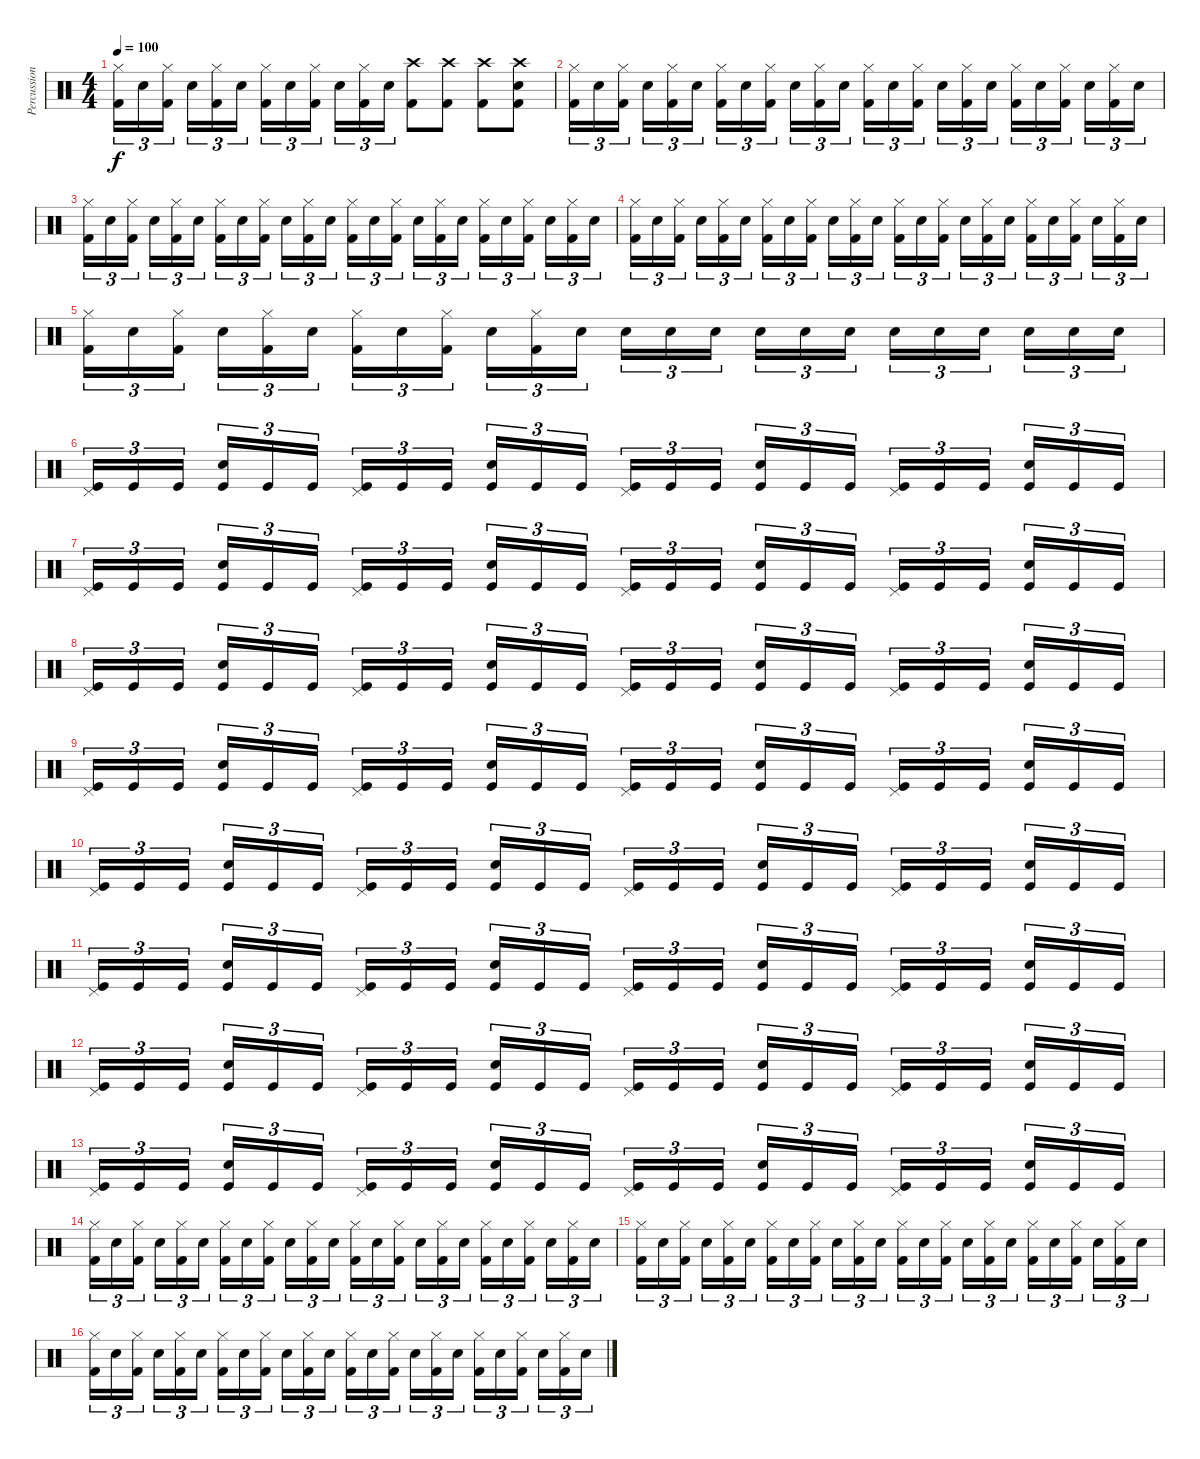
\track ("Percussion" "Percussion") {instrument percussion}
\staff {score}
\articulation defaults
\ts (4 4)
\tempo 100
\clef neutral
\ks c
("Hi-Hat (closed)" "Kick (hit) 2").16{tu (3 2) dy f} "Snare (hit) 2".16{tu (3 2)} ("Hi-Hat (closed)" "Kick (hit) 2").16{tu (3 2) beam splitsecondary} "Snare (hit) 2".16{tu (3 2)} ("Hi-Hat (closed)" "Kick (hit) 2").16{tu (3 2)} "Snare (hit) 2".16{tu (3 2)} ("Hi-Hat (closed)" "Kick (hit) 2").16{tu (3 2)} "Snare (hit) 2".16{tu (3 2)} ("Hi-Hat (closed)" "Kick (hit) 2").16{tu (3 2) beam splitsecondary} "Snare (hit) 2".16{tu (3 2)} ("Hi-Hat (closed)" "Kick (hit) 2").16{tu (3 2)} "Snare (hit) 2".16{tu (3 2)} ("Crash high (hit)" "Kick (hit) 2").8 ("Crash high (hit)" "Kick (hit) 2").8 ("Crash high (hit)" "Kick (hit) 2").8 ("Crash high (hit)" "Snare (hit) 2" "Kick (hit) 2").8 |
("Hi-Hat (closed)" "Kick (hit) 2").16{tu (3 2)} "Snare (hit) 2".16{tu (3 2)} ("Hi-Hat (closed)" "Kick (hit) 2").16{tu (3 2) beam splitsecondary} "Snare (hit) 2".16{tu (3 2)} ("Hi-Hat (closed)" "Kick (hit) 2").16{tu (3 2)} "Snare (hit) 2".16{tu (3 2)} ("Hi-Hat (closed)" "Kick (hit) 2").16{tu (3 2)} "Snare (hit) 2".16{tu (3 2)} ("Hi-Hat (closed)" "Kick (hit) 2").16{tu (3 2) beam splitsecondary} "Snare (hit) 2".16{tu (3 2)} ("Hi-Hat (closed)" "Kick (hit) 2").16{tu (3 2)} "Snare (hit) 2".16{tu (3 2)} ("Hi-Hat (closed)" "Kick (hit) 2").16{tu (3 2)} "Snare (hit) 2".16{tu (3 2)} ("Hi-Hat (closed)" "Kick (hit) 2").16{tu (3 2) beam splitsecondary} "Snare (hit) 2".16{tu (3 2)} ("Hi-Hat (closed)" "Kick (hit) 2").16{tu (3 2)} "Snare (hit) 2".16{tu (3 2)} ("Hi-Hat (closed)" "Kick (hit) 2").16{tu (3 2)} "Snare (hit) 2".16{tu (3 2)} ("Hi-Hat (closed)" "Kick (hit) 2").16{tu (3 2) beam splitsecondary} "Snare (hit) 2".16{tu (3 2)} ("Hi-Hat (closed)" "Kick (hit) 2").16{tu (3 2)} "Snare (hit) 2".16{tu (3 2)} |
("Hi-Hat (closed)" "Kick (hit) 2").16{tu (3 2)} "Snare (hit) 2".16{tu (3 2)} ("Hi-Hat (closed)" "Kick (hit) 2").16{tu (3 2) beam splitsecondary} "Snare (hit) 2".16{tu (3 2)} ("Hi-Hat (closed)" "Kick (hit) 2").16{tu (3 2)} "Snare (hit) 2".16{tu (3 2)} ("Hi-Hat (closed)" "Kick (hit) 2").16{tu (3 2)} "Snare (hit) 2".16{tu (3 2)} ("Hi-Hat (closed)" "Kick (hit) 2").16{tu (3 2) beam splitsecondary} "Snare (hit) 2".16{tu (3 2)} ("Hi-Hat (closed)" "Kick (hit) 2").16{tu (3 2)} "Snare (hit) 2".16{tu (3 2)} ("Hi-Hat (closed)" "Kick (hit) 2").16{tu (3 2)} "Snare (hit) 2".16{tu (3 2)} ("Hi-Hat (closed)" "Kick (hit) 2").16{tu (3 2) beam splitsecondary} "Snare (hit) 2".16{tu (3 2)} ("Hi-Hat (closed)" "Kick (hit) 2").16{tu (3 2)} "Snare (hit) 2".16{tu (3 2)} ("Hi-Hat (closed)" "Kick (hit) 2").16{tu (3 2)} "Snare (hit) 2".16{tu (3 2)} ("Hi-Hat (closed)" "Kick (hit) 2").16{tu (3 2) beam splitsecondary} "Snare (hit) 2".16{tu (3 2)} ("Hi-Hat (closed)" "Kick (hit) 2").16{tu (3 2)} "Snare (hit) 2".16{tu (3 2)} |
("Hi-Hat (closed)" "Kick (hit) 2").16{tu (3 2)} "Snare (hit) 2".16{tu (3 2)} ("Hi-Hat (closed)" "Kick (hit) 2").16{tu (3 2) beam splitsecondary} "Snare (hit) 2".16{tu (3 2)} ("Hi-Hat (closed)" "Kick (hit) 2").16{tu (3 2)} "Snare (hit) 2".16{tu (3 2)} ("Hi-Hat (closed)" "Kick (hit) 2").16{tu (3 2)} "Snare (hit) 2".16{tu (3 2)} ("Hi-Hat (closed)" "Kick (hit) 2").16{tu (3 2) beam splitsecondary} "Snare (hit) 2".16{tu (3 2)} ("Hi-Hat (closed)" "Kick (hit) 2").16{tu (3 2)} "Snare (hit) 2".16{tu (3 2)} ("Hi-Hat (closed)" "Kick (hit) 2").16{tu (3 2)} "Snare (hit) 2".16{tu (3 2)} ("Hi-Hat (closed)" "Kick (hit) 2").16{tu (3 2) beam splitsecondary} "Snare (hit) 2".16{tu (3 2)} ("Hi-Hat (closed)" "Kick (hit) 2").16{tu (3 2)} "Snare (hit) 2".16{tu (3 2)} ("Hi-Hat (closed)" "Kick (hit) 2").16{tu (3 2)} "Snare (hit) 2".16{tu (3 2)} ("Hi-Hat (closed)" "Kick (hit) 2").16{tu (3 2) beam splitsecondary} "Snare (hit) 2".16{tu (3 2)} ("Hi-Hat (closed)" "Kick (hit) 2").16{tu (3 2)} "Snare (hit) 2".16{tu (3 2)} |
("Hi-Hat (closed)" "Kick (hit) 2").16{tu (3 2)} "Snare (hit) 2".16{tu (3 2)} ("Hi-Hat (closed)" "Kick (hit) 2").16{tu (3 2) beam splitsecondary} "Snare (hit) 2".16{tu (3 2)} ("Hi-Hat (closed)" "Kick (hit) 2").16{tu (3 2)} "Snare (hit) 2".16{tu (3 2)} ("Hi-Hat (closed)" "Kick (hit) 2").16{tu (3 2)} "Snare (hit) 2".16{tu (3 2)} ("Hi-Hat (closed)" "Kick (hit) 2").16{tu (3 2) beam splitsecondary} "Snare (hit) 2".16{tu (3 2)} ("Hi-Hat (closed)" "Kick (hit) 2").16{tu (3 2)} "Snare (hit) 2".16{tu (3 2)} "Snare (hit) 2".16{tu (3 2)} "Snare (hit) 2".16{tu (3 2)} "Snare (hit) 2".16{tu (3 2) beam splitsecondary} "Snare (hit) 2".16{tu (3 2)} "Snare (hit) 2".16{tu (3 2)} "Snare (hit) 2".16{tu (3 2)} "Snare (hit) 2".16{tu (3 2)} "Snare (hit) 2".16{tu (3 2)} "Snare (hit) 2".16{tu (3 2) beam splitsecondary} "Snare (hit) 2".16{tu (3 2)} "Snare (hit) 2".16{tu (3 2)} "Snare (hit) 2".16{tu (3 2)} |
("Pedal Hi-Hat (hit)" "Kick (hit)").16{tu (3 2)} "Kick (hit)".16{tu (3 2)} "Kick (hit)".16{tu (3 2) beam splitsecondary} ("Snare (hit) 2" "Kick (hit)").16{tu (3 2)} "Kick (hit)".16{tu (3 2)} "Kick (hit)".16{tu (3 2)} ("Pedal Hi-Hat (hit)" "Kick (hit)").16{tu (3 2)} "Kick (hit)".16{tu (3 2)} "Kick (hit)".16{tu (3 2) beam splitsecondary} ("Snare (hit) 2" "Kick (hit)").16{tu (3 2)} "Kick (hit)".16{tu (3 2)} "Kick (hit)".16{tu (3 2)} ("Pedal Hi-Hat (hit)" "Kick (hit)").16{tu (3 2)} "Kick (hit)".16{tu (3 2)} "Kick (hit)".16{tu (3 2) beam splitsecondary} ("Snare (hit) 2" "Kick (hit)").16{tu (3 2)} "Kick (hit)".16{tu (3 2)} "Kick (hit)".16{tu (3 2)} ("Pedal Hi-Hat (hit)" "Kick (hit)").16{tu (3 2)} "Kick (hit)".16{tu (3 2)} "Kick (hit)".16{tu (3 2) beam splitsecondary} ("Snare (hit) 2" "Kick (hit)").16{tu (3 2)} "Kick (hit)".16{tu (3 2)} "Kick (hit)".16{tu (3 2)} |
("Pedal Hi-Hat (hit)" "Kick (hit)").16{tu (3 2)} "Kick (hit)".16{tu (3 2)} "Kick (hit)".16{tu (3 2) beam splitsecondary} ("Snare (hit) 2" "Kick (hit)").16{tu (3 2)} "Kick (hit)".16{tu (3 2)} "Kick (hit)".16{tu (3 2)} ("Pedal Hi-Hat (hit)" "Kick (hit)").16{tu (3 2)} "Kick (hit)".16{tu (3 2)} "Kick (hit)".16{tu (3 2) beam splitsecondary} ("Snare (hit) 2" "Kick (hit)").16{tu (3 2)} "Kick (hit)".16{tu (3 2)} "Kick (hit)".16{tu (3 2)} ("Pedal Hi-Hat (hit)" "Kick (hit)").16{tu (3 2)} "Kick (hit)".16{tu (3 2)} "Kick (hit)".16{tu (3 2) beam splitsecondary} ("Snare (hit) 2" "Kick (hit)").16{tu (3 2)} "Kick (hit)".16{tu (3 2)} "Kick (hit)".16{tu (3 2)} ("Pedal Hi-Hat (hit)" "Kick (hit)").16{tu (3 2)} "Kick (hit)".16{tu (3 2)} "Kick (hit)".16{tu (3 2) beam splitsecondary} ("Snare (hit) 2" "Kick (hit)").16{tu (3 2)} "Kick (hit)".16{tu (3 2)} "Kick (hit)".16{tu (3 2)} |
("Pedal Hi-Hat (hit)" "Kick (hit)").16{tu (3 2)} "Kick (hit)".16{tu (3 2)} "Kick (hit)".16{tu (3 2) beam splitsecondary} ("Snare (hit) 2" "Kick (hit)").16{tu (3 2)} "Kick (hit)".16{tu (3 2)} "Kick (hit)".16{tu (3 2)} ("Pedal Hi-Hat (hit)" "Kick (hit)").16{tu (3 2)} "Kick (hit)".16{tu (3 2)} "Kick (hit)".16{tu (3 2) beam splitsecondary} ("Snare (hit) 2" "Kick (hit)").16{tu (3 2)} "Kick (hit)".16{tu (3 2)} "Kick (hit)".16{tu (3 2)} ("Pedal Hi-Hat (hit)" "Kick (hit)").16{tu (3 2)} "Kick (hit)".16{tu (3 2)} "Kick (hit)".16{tu (3 2) beam splitsecondary} ("Snare (hit) 2" "Kick (hit)").16{tu (3 2)} "Kick (hit)".16{tu (3 2)} "Kick (hit)".16{tu (3 2)} ("Pedal Hi-Hat (hit)" "Kick (hit)").16{tu (3 2)} "Kick (hit)".16{tu (3 2)} "Kick (hit)".16{tu (3 2) beam splitsecondary} ("Snare (hit) 2" "Kick (hit)").16{tu (3 2)} "Kick (hit)".16{tu (3 2)} "Kick (hit)".16{tu (3 2)} |
("Pedal Hi-Hat (hit)" "Kick (hit)").16{tu (3 2)} "Kick (hit)".16{tu (3 2)} "Kick (hit)".16{tu (3 2) beam splitsecondary} ("Snare (hit) 2" "Kick (hit)").16{tu (3 2)} "Kick (hit)".16{tu (3 2)} "Kick (hit)".16{tu (3 2)} ("Pedal Hi-Hat (hit)" "Kick (hit)").16{tu (3 2)} "Kick (hit)".16{tu (3 2)} "Kick (hit)".16{tu (3 2) beam splitsecondary} ("Snare (hit) 2" "Kick (hit)").16{tu (3 2)} "Kick (hit)".16{tu (3 2)} "Kick (hit)".16{tu (3 2)} ("Pedal Hi-Hat (hit)" "Kick (hit)").16{tu (3 2)} "Kick (hit)".16{tu (3 2)} "Kick (hit)".16{tu (3 2) beam splitsecondary} ("Snare (hit) 2" "Kick (hit)").16{tu (3 2)} "Kick (hit)".16{tu (3 2)} "Kick (hit)".16{tu (3 2)} ("Pedal Hi-Hat (hit)" "Kick (hit)").16{tu (3 2)} "Kick (hit)".16{tu (3 2)} "Kick (hit)".16{tu (3 2) beam splitsecondary} ("Snare (hit) 2" "Kick (hit)").16{tu (3 2)} "Kick (hit)".16{tu (3 2)} "Kick (hit)".16{tu (3 2)} |
("Pedal Hi-Hat (hit)" "Kick (hit)").16{tu (3 2)} "Kick (hit)".16{tu (3 2)} "Kick (hit)".16{tu (3 2) beam splitsecondary} ("Snare (hit) 2" "Kick (hit)").16{tu (3 2)} "Kick (hit)".16{tu (3 2)} "Kick (hit)".16{tu (3 2)} ("Pedal Hi-Hat (hit)" "Kick (hit)").16{tu (3 2)} "Kick (hit)".16{tu (3 2)} "Kick (hit)".16{tu (3 2) beam splitsecondary} ("Snare (hit) 2" "Kick (hit)").16{tu (3 2)} "Kick (hit)".16{tu (3 2)} "Kick (hit)".16{tu (3 2)} ("Pedal Hi-Hat (hit)" "Kick (hit)").16{tu (3 2)} "Kick (hit)".16{tu (3 2)} "Kick (hit)".16{tu (3 2) beam splitsecondary} ("Snare (hit) 2" "Kick (hit)").16{tu (3 2)} "Kick (hit)".16{tu (3 2)} "Kick (hit)".16{tu (3 2)} ("Pedal Hi-Hat (hit)" "Kick (hit)").16{tu (3 2)} "Kick (hit)".16{tu (3 2)} "Kick (hit)".16{tu (3 2) beam splitsecondary} ("Snare (hit) 2" "Kick (hit)").16{tu (3 2)} "Kick (hit)".16{tu (3 2)} "Kick (hit)".16{tu (3 2)} |
("Pedal Hi-Hat (hit)" "Kick (hit)").16{tu (3 2)} "Kick (hit)".16{tu (3 2)} "Kick (hit)".16{tu (3 2) beam splitsecondary} ("Snare (hit) 2" "Kick (hit)").16{tu (3 2)} "Kick (hit)".16{tu (3 2)} "Kick (hit)".16{tu (3 2)} ("Pedal Hi-Hat (hit)" "Kick (hit)").16{tu (3 2)} "Kick (hit)".16{tu (3 2)} "Kick (hit)".16{tu (3 2) beam splitsecondary} ("Snare (hit) 2" "Kick (hit)").16{tu (3 2)} "Kick (hit)".16{tu (3 2)} "Kick (hit)".16{tu (3 2)} ("Pedal Hi-Hat (hit)" "Kick (hit)").16{tu (3 2)} "Kick (hit)".16{tu (3 2)} "Kick (hit)".16{tu (3 2) beam splitsecondary} ("Snare (hit) 2" "Kick (hit)").16{tu (3 2)} "Kick (hit)".16{tu (3 2)} "Kick (hit)".16{tu (3 2)} ("Pedal Hi-Hat (hit)" "Kick (hit)").16{tu (3 2)} "Kick (hit)".16{tu (3 2)} "Kick (hit)".16{tu (3 2) beam splitsecondary} ("Snare (hit) 2" "Kick (hit)").16{tu (3 2)} "Kick (hit)".16{tu (3 2)} "Kick (hit)".16{tu (3 2)} |
("Pedal Hi-Hat (hit)" "Kick (hit)").16{tu (3 2)} "Kick (hit)".16{tu (3 2)} "Kick (hit)".16{tu (3 2) beam splitsecondary} ("Snare (hit) 2" "Kick (hit)").16{tu (3 2)} "Kick (hit)".16{tu (3 2)} "Kick (hit)".16{tu (3 2)} ("Pedal Hi-Hat (hit)" "Kick (hit)").16{tu (3 2)} "Kick (hit)".16{tu (3 2)} "Kick (hit)".16{tu (3 2) beam splitsecondary} ("Snare (hit) 2" "Kick (hit)").16{tu (3 2)} "Kick (hit)".16{tu (3 2)} "Kick (hit)".16{tu (3 2)} ("Pedal Hi-Hat (hit)" "Kick (hit)").16{tu (3 2)} "Kick (hit)".16{tu (3 2)} "Kick (hit)".16{tu (3 2) beam splitsecondary} ("Snare (hit) 2" "Kick (hit)").16{tu (3 2)} "Kick (hit)".16{tu (3 2)} "Kick (hit)".16{tu (3 2)} ("Pedal Hi-Hat (hit)" "Kick (hit)").16{tu (3 2)} "Kick (hit)".16{tu (3 2)} "Kick (hit)".16{tu (3 2) beam splitsecondary} ("Snare (hit) 2" "Kick (hit)").16{tu (3 2)} "Kick (hit)".16{tu (3 2)} "Kick (hit)".16{tu (3 2)} |
("Pedal Hi-Hat (hit)" "Kick (hit)").16{tu (3 2)} "Kick (hit)".16{tu (3 2)} "Kick (hit)".16{tu (3 2) beam splitsecondary} ("Snare (hit) 2" "Kick (hit)").16{tu (3 2)} "Kick (hit)".16{tu (3 2)} "Kick (hit)".16{tu (3 2)} ("Pedal Hi-Hat (hit)" "Kick (hit)").16{tu (3 2)} "Kick (hit)".16{tu (3 2)} "Kick (hit)".16{tu (3 2) beam splitsecondary} ("Snare (hit) 2" "Kick (hit)").16{tu (3 2)} "Kick (hit)".16{tu (3 2)} "Kick (hit)".16{tu (3 2)} ("Pedal Hi-Hat (hit)" "Kick (hit)").16{tu (3 2)} "Kick (hit)".16{tu (3 2)} "Kick (hit)".16{tu (3 2) beam splitsecondary} ("Snare (hit) 2" "Kick (hit)").16{tu (3 2)} "Kick (hit)".16{tu (3 2)} "Kick (hit)".16{tu (3 2)} ("Pedal Hi-Hat (hit)" "Kick (hit)").16{tu (3 2)} "Kick (hit)".16{tu (3 2)} "Kick (hit)".16{tu (3 2) beam splitsecondary} ("Snare (hit) 2" "Kick (hit)").16{tu (3 2)} "Kick (hit)".16{tu (3 2)} "Kick (hit)".16{tu (3 2)} |
("Hi-Hat (closed)" "Kick (hit) 2").16{tu (3 2)} "Snare (hit) 2".16{tu (3 2)} ("Hi-Hat (closed)" "Kick (hit) 2").16{tu (3 2) beam splitsecondary} "Snare (hit) 2".16{tu (3 2)} ("Hi-Hat (closed)" "Kick (hit) 2").16{tu (3 2)} "Snare (hit) 2".16{tu (3 2)} ("Hi-Hat (closed)" "Kick (hit) 2").16{tu (3 2)} "Snare (hit) 2".16{tu (3 2)} ("Hi-Hat (closed)" "Kick (hit) 2").16{tu (3 2) beam splitsecondary} "Snare (hit) 2".16{tu (3 2)} ("Hi-Hat (closed)" "Kick (hit) 2").16{tu (3 2)} "Snare (hit) 2".16{tu (3 2)} ("Hi-Hat (closed)" "Kick (hit) 2").16{tu (3 2)} "Snare (hit) 2".16{tu (3 2)} ("Hi-Hat (closed)" "Kick (hit) 2").16{tu (3 2) beam splitsecondary} "Snare (hit) 2".16{tu (3 2)} ("Hi-Hat (closed)" "Kick (hit) 2").16{tu (3 2)} "Snare (hit) 2".16{tu (3 2)} ("Hi-Hat (closed)" "Kick (hit) 2").16{tu (3 2)} "Snare (hit) 2".16{tu (3 2)} ("Hi-Hat (closed)" "Kick (hit) 2").16{tu (3 2) beam splitsecondary} "Snare (hit) 2".16{tu (3 2)} ("Hi-Hat (closed)" "Kick (hit) 2").16{tu (3 2)} "Snare (hit) 2".16{tu (3 2)} |
("Hi-Hat (closed)" "Kick (hit) 2").16{tu (3 2)} "Snare (hit) 2".16{tu (3 2)} ("Hi-Hat (closed)" "Kick (hit) 2").16{tu (3 2) beam splitsecondary} "Snare (hit) 2".16{tu (3 2)} ("Hi-Hat (closed)" "Kick (hit) 2").16{tu (3 2)} "Snare (hit) 2".16{tu (3 2)} ("Hi-Hat (closed)" "Kick (hit) 2").16{tu (3 2)} "Snare (hit) 2".16{tu (3 2)} ("Hi-Hat (closed)" "Kick (hit) 2").16{tu (3 2) beam splitsecondary} "Snare (hit) 2".16{tu (3 2)} ("Hi-Hat (closed)" "Kick (hit) 2").16{tu (3 2)} "Snare (hit) 2".16{tu (3 2)} ("Hi-Hat (closed)" "Kick (hit) 2").16{tu (3 2)} "Snare (hit) 2".16{tu (3 2)} ("Hi-Hat (closed)" "Kick (hit) 2").16{tu (3 2) beam splitsecondary} "Snare (hit) 2".16{tu (3 2)} ("Hi-Hat (closed)" "Kick (hit) 2").16{tu (3 2)} "Snare (hit) 2".16{tu (3 2)} ("Hi-Hat (closed)" "Kick (hit) 2").16{tu (3 2)} "Snare (hit) 2".16{tu (3 2)} ("Hi-Hat (closed)" "Kick (hit) 2").16{tu (3 2) beam splitsecondary} "Snare (hit) 2".16{tu (3 2)} ("Hi-Hat (closed)" "Kick (hit) 2").16{tu (3 2)} "Snare (hit) 2".16{tu (3 2)} |
("Hi-Hat (closed)" "Kick (hit) 2").16{tu (3 2)} "Snare (hit) 2".16{tu (3 2)} ("Hi-Hat (closed)" "Kick (hit) 2").16{tu (3 2) beam splitsecondary} "Snare (hit) 2".16{tu (3 2)} ("Hi-Hat (closed)" "Kick (hit) 2").16{tu (3 2)} "Snare (hit) 2".16{tu (3 2)} ("Hi-Hat (closed)" "Kick (hit) 2").16{tu (3 2)} "Snare (hit) 2".16{tu (3 2)} ("Hi-Hat (closed)" "Kick (hit) 2").16{tu (3 2) beam splitsecondary} "Snare (hit) 2".16{tu (3 2)} ("Hi-Hat (closed)" "Kick (hit) 2").16{tu (3 2)} "Snare (hit) 2".16{tu (3 2)} ("Hi-Hat (closed)" "Kick (hit) 2").16{tu (3 2)} "Snare (hit) 2".16{tu (3 2)} ("Hi-Hat (closed)" "Kick (hit) 2").16{tu (3 2) beam splitsecondary} "Snare (hit) 2".16{tu (3 2)} ("Hi-Hat (closed)" "Kick (hit) 2").16{tu (3 2)} "Snare (hit) 2".16{tu (3 2)} ("Hi-Hat (closed)" "Kick (hit) 2").16{tu (3 2)} "Snare (hit) 2".16{tu (3 2)} ("Hi-Hat (closed)" "Kick (hit) 2").16{tu (3 2) beam splitsecondary} "Snare (hit) 2".16{tu (3 2)} ("Hi-Hat (closed)" "Kick (hit) 2").16{tu (3 2)} "Snare (hit) 2".16{tu (3 2)}
